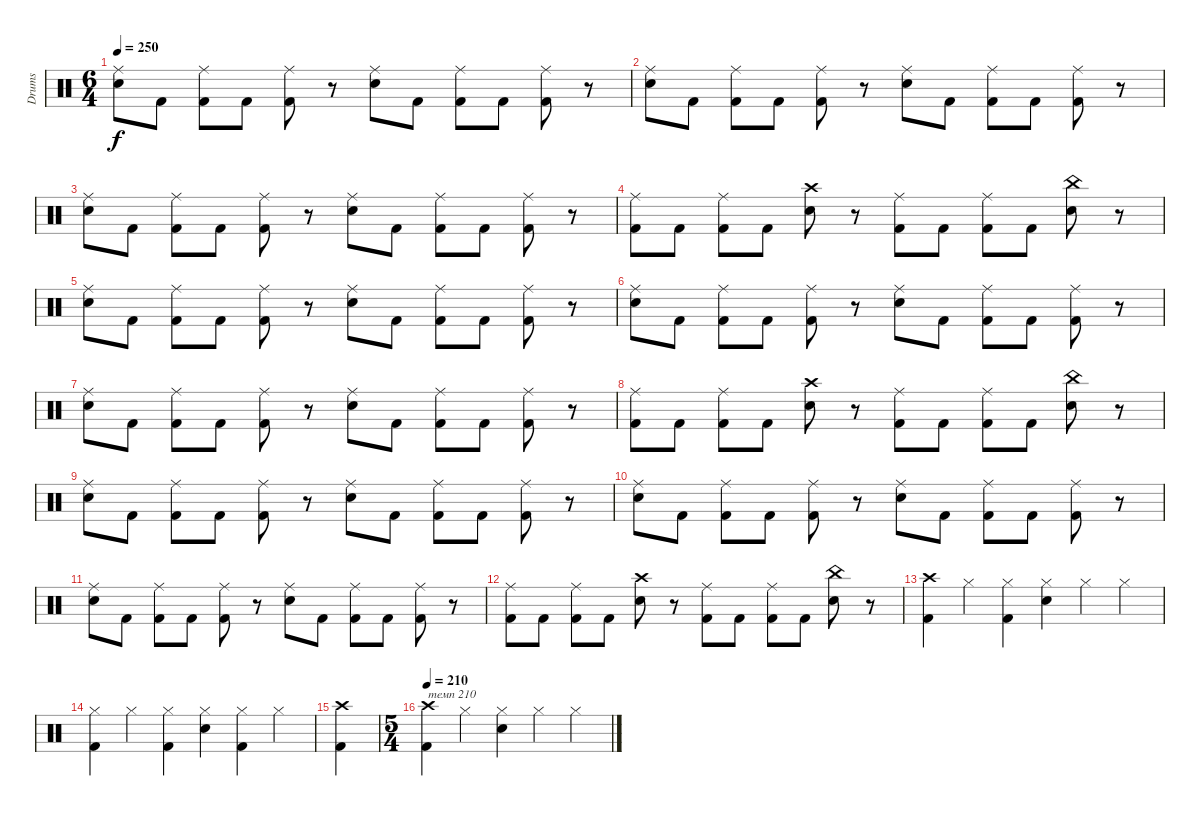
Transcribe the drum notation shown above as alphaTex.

\track ("Drums" "Drums") {instrument percussion}
\staff {score}
\articulation defaults
\ts (6 4)
\tempo 250
\clef neutral
\ks c
("Ride (middle)" "Snare (hit) 2").8{dy f} "Kick (hit) 2".8 ("Ride (middle)" "Kick (hit) 2").8 "Kick (hit) 2".8 ("Ride (middle)" "Kick (hit) 2").8 r.8 ("Ride (middle)" "Snare (hit) 2").8 "Kick (hit) 2".8 ("Ride (middle)" "Kick (hit) 2").8 "Kick (hit) 2".8 ("Ride (middle)" "Kick (hit) 2").8 r.8 |
("Ride (middle)" "Snare (hit) 2").8 "Kick (hit) 2".8 ("Ride (middle)" "Kick (hit) 2").8 "Kick (hit) 2".8 ("Ride (middle)" "Kick (hit) 2").8 r.8 ("Ride (middle)" "Snare (hit) 2").8 "Kick (hit) 2".8 ("Ride (middle)" "Kick (hit) 2").8 "Kick (hit) 2".8 ("Ride (middle)" "Kick (hit) 2").8 r.8 |
("Ride (middle)" "Snare (hit) 2").8 "Kick (hit) 2".8 ("Ride (middle)" "Kick (hit) 2").8 "Kick (hit) 2".8 ("Ride (middle)" "Kick (hit) 2").8 r.8 ("Ride (middle)" "Snare (hit) 2").8 "Kick (hit) 2".8 ("Ride (middle)" "Kick (hit) 2").8 "Kick (hit) 2".8 ("Ride (middle)" "Kick (hit) 2").8 r.8 |
("Ride (middle)" "Kick (hit) 2").8 "Kick (hit) 2".8 ("Ride (middle)" "Kick (hit) 2").8 "Kick (hit) 2".8 ("Crash high (hit)" "Snare (hit) 2").8 r.8 ("Ride (middle)" "Kick (hit) 2").8 "Kick (hit) 2".8 ("Ride (middle)" "Kick (hit) 2").8 "Kick (hit) 2".8 ("China (hit)" "Snare (hit) 2").8 r.8 |
("Ride (middle)" "Snare (hit) 2").8 "Kick (hit) 2".8 ("Ride (middle)" "Kick (hit) 2").8 "Kick (hit) 2".8 ("Ride (middle)" "Kick (hit) 2").8 r.8 ("Ride (middle)" "Snare (hit) 2").8 "Kick (hit) 2".8 ("Ride (middle)" "Kick (hit) 2").8 "Kick (hit) 2".8 ("Ride (middle)" "Kick (hit) 2").8 r.8 |
("Ride (middle)" "Snare (hit) 2").8 "Kick (hit) 2".8 ("Ride (middle)" "Kick (hit) 2").8 "Kick (hit) 2".8 ("Ride (middle)" "Kick (hit) 2").8 r.8 ("Ride (middle)" "Snare (hit) 2").8 "Kick (hit) 2".8 ("Ride (middle)" "Kick (hit) 2").8 "Kick (hit) 2".8 ("Ride (middle)" "Kick (hit) 2").8 r.8 |
("Ride (middle)" "Snare (hit) 2").8 "Kick (hit) 2".8 ("Ride (middle)" "Kick (hit) 2").8 "Kick (hit) 2".8 ("Ride (middle)" "Kick (hit) 2").8 r.8 ("Ride (middle)" "Snare (hit) 2").8 "Kick (hit) 2".8 ("Ride (middle)" "Kick (hit) 2").8 "Kick (hit) 2".8 ("Ride (middle)" "Kick (hit) 2").8 r.8 |
("Ride (middle)" "Kick (hit) 2").8 "Kick (hit) 2".8 ("Ride (middle)" "Kick (hit) 2").8 "Kick (hit) 2".8 ("Crash high (hit)" "Snare (hit) 2").8 r.8 ("Ride (middle)" "Kick (hit) 2").8 "Kick (hit) 2".8 ("Ride (middle)" "Kick (hit) 2").8 "Kick (hit) 2".8 ("China (hit)" "Snare (hit) 2").8 r.8 |
("Ride (middle)" "Snare (hit) 2").8 "Kick (hit) 2".8 ("Ride (middle)" "Kick (hit) 2").8 "Kick (hit) 2".8 ("Ride (middle)" "Kick (hit) 2").8 r.8 ("Ride (middle)" "Snare (hit) 2").8 "Kick (hit) 2".8 ("Ride (middle)" "Kick (hit) 2").8 "Kick (hit) 2".8 ("Ride (middle)" "Kick (hit) 2").8 r.8 |
("Ride (middle)" "Snare (hit) 2").8 "Kick (hit) 2".8 ("Ride (middle)" "Kick (hit) 2").8 "Kick (hit) 2".8 ("Ride (middle)" "Kick (hit) 2").8 r.8 ("Ride (middle)" "Snare (hit) 2").8 "Kick (hit) 2".8 ("Ride (middle)" "Kick (hit) 2").8 "Kick (hit) 2".8 ("Ride (middle)" "Kick (hit) 2").8 r.8 |
("Ride (middle)" "Snare (hit) 2").8 "Kick (hit) 2".8 ("Ride (middle)" "Kick (hit) 2").8 "Kick (hit) 2".8 ("Ride (middle)" "Kick (hit) 2").8 r.8 ("Ride (middle)" "Snare (hit) 2").8 "Kick (hit) 2".8 ("Ride (middle)" "Kick (hit) 2").8 "Kick (hit) 2".8 ("Ride (middle)" "Kick (hit) 2").8 r.8 |
("Ride (middle)" "Kick (hit) 2").8 "Kick (hit) 2".8 ("Ride (middle)" "Kick (hit) 2").8 "Kick (hit) 2".8 ("Crash high (hit)" "Snare (hit) 2").8 r.8 ("Ride (middle)" "Kick (hit) 2").8 "Kick (hit) 2".8 ("Ride (middle)" "Kick (hit) 2").8 "Kick (hit) 2".8 ("China (hit)" "Snare (hit) 2").8 r.8 |
("Crash high (hit)" "Kick (hit) 2").4 "Hi-Hat (closed)".4 ("Hi-Hat (closed)" "Kick (hit) 2").4 ("Hi-Hat (closed)" "Snare (hit) 2").4 "Hi-Hat (closed)".4 "Hi-Hat (closed)".4 |
("Hi-Hat (closed)" "Kick (hit) 2").4 "Hi-Hat (closed)".4 ("Hi-Hat (closed)" "Kick (hit) 2").4 ("Hi-Hat (closed)" "Snare (hit) 2").4 ("Hi-Hat (closed)" "Kick (hit) 2").4 "Hi-Hat (closed)".4 |
("Crash high (hit)" "Kick (hit) 2").4 |
\ts (5 4)
\tempo 210
("Crash high (hit)" "Kick (hit) 2").4{txt "темп 210"} "Hi-Hat (closed)".4 ("Hi-Hat (closed)" "Snare (hit) 2").4 "Hi-Hat (closed)".4 "Hi-Hat (closed)".4
